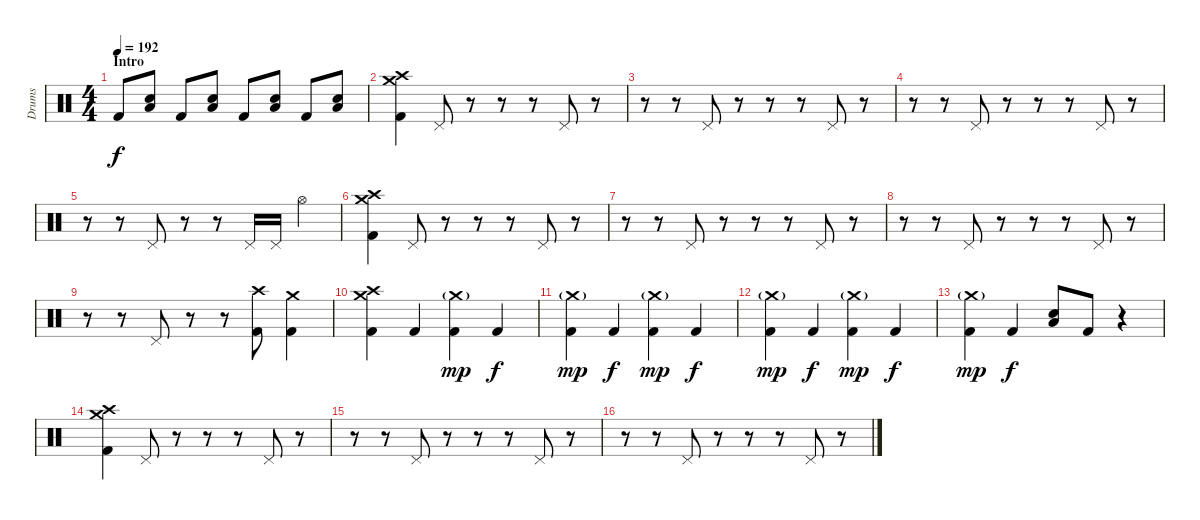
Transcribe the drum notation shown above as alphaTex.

\track ("Drums" "Drums") {instrument percussion}
\staff {score}
\articulation defaults
\ts (4 4)
\section ("" "Intro")
\tempo 192
\clef neutral
\ks c "Kick (hit) 2".8{dy f}
("Low Floor Tom (hit)" "Electric Snare (hit)").8 "Kick (hit) 2".8 ("Low Floor Tom (hit)" "Electric Snare (hit)").8 "Kick (hit) 2".8 ("Low Floor Tom (hit)" "Electric Snare (hit)").8 "Kick (hit) 2".8 ("Low Floor Tom (hit)" "Electric Snare (hit)").8 |
("Crash high (hit)" "Crash medium (hit)" "Kick (hit) 2").4 "Pedal Hi-Hat (hit)".8 r.8 r.8 r.8 "Pedal Hi-Hat (hit)".8 r.8 |
r.8 r.8 "Pedal Hi-Hat (hit)".8 r.8 r.8 r.8 "Pedal Hi-Hat (hit)".8 r.8 |
r.8 r.8 "Pedal Hi-Hat (hit)".8 r.8 r.8 r.8 "Pedal Hi-Hat (hit)".8 r.8 |
r.8 r.8 "Pedal Hi-Hat (hit)".8 r.8 r.8 "Pedal Hi-Hat (hit)".16 "Pedal Hi-Hat (hit)".16 "Hi-Hat (open)".4 |
("Crash high (hit)" "Crash medium (hit)" "Kick (hit) 2").4 "Pedal Hi-Hat (hit)".8 r.8 r.8 r.8 "Pedal Hi-Hat (hit)".8 r.8 |
r.8 r.8 "Pedal Hi-Hat (hit)".8 r.8 r.8 r.8 "Pedal Hi-Hat (hit)".8 r.8 |
r.8 r.8 "Pedal Hi-Hat (hit)".8 r.8 r.8 r.8 "Pedal Hi-Hat (hit)".8 r.8 |
r.8 r.8 "Pedal Hi-Hat (hit)".8 r.8 r.8 ("Crash high (hit)" "Kick (hit) 2").8 ("Crash medium (hit)" "Kick (hit) 2").4 |
("Crash high (hit)" "Crash medium (hit)" "Kick (hit) 2").4 "Kick (hit) 2".4 ("Crash medium (hit)"{g} "Kick (hit) 2").4{dy mp} "Kick (hit) 2".4{dy f} |
("Crash medium (hit)"{g} "Kick (hit) 2").4{dy mp} "Kick (hit) 2".4{dy f} ("Crash medium (hit)"{g} "Kick (hit) 2").4{dy mp} "Kick (hit) 2".4{dy f} |
("Crash medium (hit)"{g} "Kick (hit) 2").4{dy mp} "Kick (hit) 2".4{dy f} ("Crash medium (hit)"{g} "Kick (hit) 2").4{dy mp} "Kick (hit) 2".4{dy f} |
("Crash medium (hit)"{g} "Kick (hit) 2").4{dy mp} "Kick (hit) 2".4{dy f} ("Low Floor Tom (hit)" "Electric Snare (hit)").8 "Kick (hit) 2".8 r.4 |
("Crash high (hit)" "Crash medium (hit)" "Kick (hit) 2").4 "Pedal Hi-Hat (hit)".8 r.8 r.8 r.8 "Pedal Hi-Hat (hit)".8 r.8 |
r.8 r.8 "Pedal Hi-Hat (hit)".8 r.8 r.8 r.8 "Pedal Hi-Hat (hit)".8 r.8 |
r.8 r.8 "Pedal Hi-Hat (hit)".8 r.8 r.8 r.8 "Pedal Hi-Hat (hit)".8 r.8
